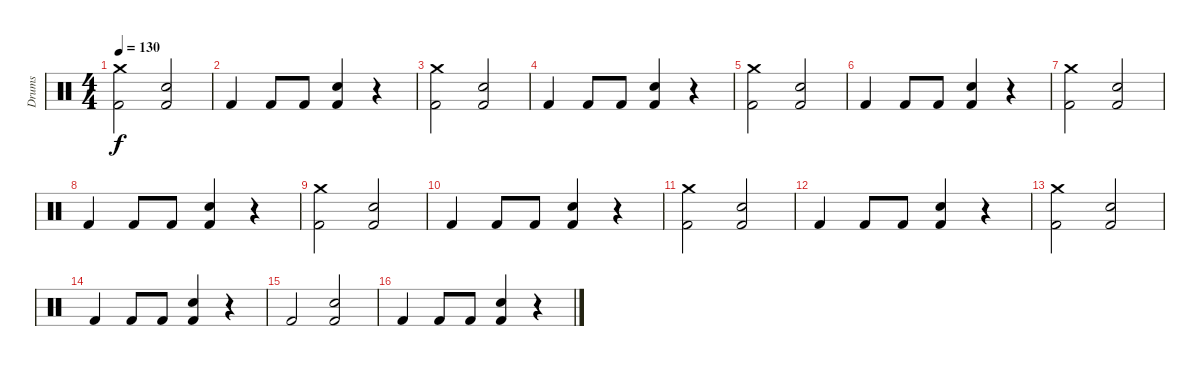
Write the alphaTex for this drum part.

\track ("Drums" "Drums") {instrument percussion}
\staff {score}
\articulation defaults
\ts (4 4)
\tempo 130
\clef neutral
\ks c
("Crash medium (hit)" "Kick (hit) 2").2{dy f} ("Kick (hit) 2" "Snare (hit) 2").2 |
"Kick (hit) 2".4 "Kick (hit) 2".8 "Kick (hit) 2".8 ("Kick (hit) 2" "Snare (hit) 2").4 r.4 |
("Crash medium (hit)" "Kick (hit) 2").2 ("Kick (hit) 2" "Snare (hit) 2").2 |
"Kick (hit) 2".4 "Kick (hit) 2".8 "Kick (hit) 2".8 ("Kick (hit) 2" "Snare (hit) 2").4 r.4 |
("Crash medium (hit)" "Kick (hit) 2").2 ("Kick (hit) 2" "Snare (hit) 2").2 |
"Kick (hit) 2".4 "Kick (hit) 2".8 "Kick (hit) 2".8 ("Kick (hit) 2" "Snare (hit) 2").4 r.4 |
("Crash medium (hit)" "Kick (hit) 2").2 ("Kick (hit) 2" "Snare (hit) 2").2 |
"Kick (hit) 2".4 "Kick (hit) 2".8 "Kick (hit) 2".8 ("Kick (hit) 2" "Snare (hit) 2").4 r.4 |
("Crash medium (hit)" "Kick (hit) 2").2 ("Kick (hit) 2" "Snare (hit) 2").2 |
"Kick (hit) 2".4 "Kick (hit) 2".8 "Kick (hit) 2".8 ("Kick (hit) 2" "Snare (hit) 2").4 r.4 |
("Crash medium (hit)" "Kick (hit) 2").2 ("Kick (hit) 2" "Snare (hit) 2").2 |
"Kick (hit) 2".4 "Kick (hit) 2".8 "Kick (hit) 2".8 ("Kick (hit) 2" "Snare (hit) 2").4 r.4 |
("Crash medium (hit)" "Kick (hit) 2").2 ("Kick (hit) 2" "Snare (hit) 2").2 |
"Kick (hit) 2".4 "Kick (hit) 2".8 "Kick (hit) 2".8 ("Kick (hit) 2" "Snare (hit) 2").4 r.4 |
"Kick (hit) 2".2 ("Kick (hit) 2" "Snare (hit) 2").2 |
"Kick (hit) 2".4 "Kick (hit) 2".8 "Kick (hit) 2".8 ("Kick (hit) 2" "Snare (hit) 2").4 r.4
